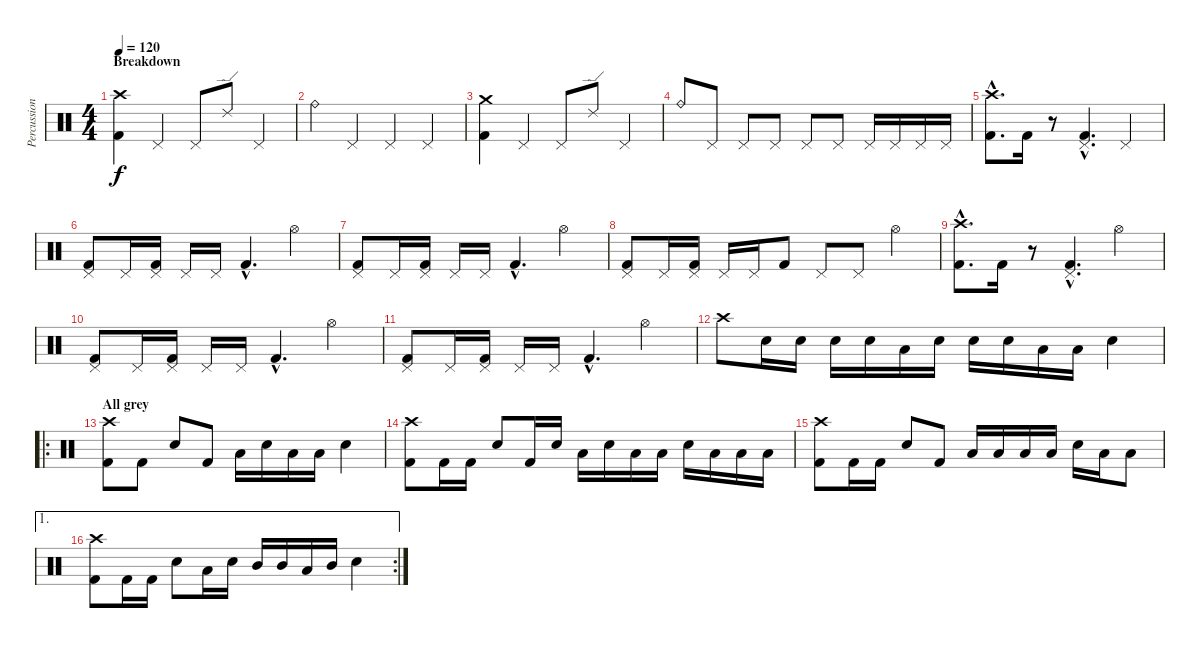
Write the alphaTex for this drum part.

\track ("Percussion" "Percussion") {instrument percussion}
\staff {score}
\articulation defaults
\ts (4 4)
\section ("" "Breakdown")
\tempo 120
\clef neutral
\ks c
("Crash high (hit)" "Kick (hit) 2").4{dy f} "Pedal Hi-Hat (hit)".4 "Pedal Hi-Hat (hit)".8 "Ride (edge) 2".8 "Pedal Hi-Hat (hit)".4 |
"Ride (bell)".4 "Pedal Hi-Hat (hit)".4 "Pedal Hi-Hat (hit)".4 "Pedal Hi-Hat (hit)".4 |
("Crash medium (hit)" "Kick (hit) 2").4 "Pedal Hi-Hat (hit)".4 "Pedal Hi-Hat (hit)".8 "Ride (edge) 2".8 "Pedal Hi-Hat (hit)".4 |
"Ride (bell)".8 "Pedal Hi-Hat (hit)".8 "Pedal Hi-Hat (hit)".8 "Pedal Hi-Hat (hit)".8 "Pedal Hi-Hat (hit)".8 "Pedal Hi-Hat (hit)".8 "Pedal Hi-Hat (hit)".16 "Pedal Hi-Hat (hit)".16 "Pedal Hi-Hat (hit)".16 "Pedal Hi-Hat (hit)".16 |
("Crash high (hit)"{hac} "Kick (hit) 2"{hac}).8{d} "Kick (hit) 2".16 r.8 ("Pedal Hi-Hat (hit)"{hac} "Kick (hit) 2"{hac}).4{d} "Pedal Hi-Hat (hit)".4 |
("Pedal Hi-Hat (hit)" "Kick (hit) 2").8 "Pedal Hi-Hat (hit)".16 ("Pedal Hi-Hat (hit)" "Kick (hit) 2").16 "Pedal Hi-Hat (hit)".16 "Pedal Hi-Hat (hit)".16 "Kick (hit) 2"{hac}.4{d} "Hi-Hat (open)".4 |
("Pedal Hi-Hat (hit)" "Kick (hit) 2").8 "Pedal Hi-Hat (hit)".16 ("Pedal Hi-Hat (hit)" "Kick (hit) 2").16 "Pedal Hi-Hat (hit)".16 "Pedal Hi-Hat (hit)".16 "Kick (hit) 2"{hac}.4{d} "Hi-Hat (open)".4 |
("Pedal Hi-Hat (hit)" "Kick (hit) 2").8 "Pedal Hi-Hat (hit)".16 ("Pedal Hi-Hat (hit)" "Kick (hit) 2").16 "Pedal Hi-Hat (hit)".16 "Pedal Hi-Hat (hit)".16 "Kick (hit) 2".8 "Pedal Hi-Hat (hit)".8 "Pedal Hi-Hat (hit)".8 "Hi-Hat (open)".4 |
("Crash high (hit)"{hac} "Kick (hit) 2"{hac}).8{d} "Kick (hit) 2".16 r.8 ("Pedal Hi-Hat (hit)"{hac} "Kick (hit) 2"{hac}).4{d} "Hi-Hat (open)".4 |
("Pedal Hi-Hat (hit)" "Kick (hit) 2").8 "Pedal Hi-Hat (hit)".16 ("Pedal Hi-Hat (hit)" "Kick (hit) 2").16 "Pedal Hi-Hat (hit)".16 "Pedal Hi-Hat (hit)".16 "Kick (hit) 2"{hac}.4{d} "Hi-Hat (open)".4 |
("Pedal Hi-Hat (hit)" "Kick (hit) 2").8 "Pedal Hi-Hat (hit)".16 ("Pedal Hi-Hat (hit)" "Kick (hit) 2").16 "Pedal Hi-Hat (hit)".16 "Pedal Hi-Hat (hit)".16 "Kick (hit) 2"{hac}.4{d} "Hi-Hat (open)".4 |
"Crash high (hit)".8 "Snare (hit) 2".16 "Snare (hit) 2".16 "Snare (hit) 2".16 "Snare (hit) 2".16 "Low Tom (hit)".16 "Snare (hit) 2".16 "Snare (hit) 2".16 "Snare (hit) 2".16 "Low Tom (hit)".16 "Low Tom (hit)".16 "Snare (hit) 2".4 |
\ro
\section ("" "All grey")
("Crash high (hit)" "Kick (hit) 2").8 "Kick (hit) 2".8 "Snare (hit) 2".8 "Kick (hit) 2".8 "Low Tom (hit)".16 "Snare (hit) 2".16 "Low Tom (hit)".16 "Low Tom (hit)".16 "Snare (hit) 2".4 |
("Crash high (hit)" "Kick (hit) 2").8 "Kick (hit) 2".16 "Kick (hit) 2".16 "Snare (hit) 2".8 "Kick (hit) 2".16 "Snare (hit) 2".16 "Low Tom (hit)".16 "Snare (hit) 2".16 "Low Tom (hit)".16 "Low Tom (hit)".16 "Snare (hit) 2".16 "Low Tom (hit)".16 "Low Tom (hit)".16 "Low Tom (hit)".16 |
("Crash high (hit)" "Kick (hit) 2").8 "Kick (hit) 2".16 "Kick (hit) 2".16 "Snare (hit) 2".8 "Kick (hit) 2".8 "Low Tom (hit)".16 "Low Tom (hit)".16 "Low Tom (hit)".16 "Low Tom (hit)".16 "Snare (hit) 2".16 "Low Tom (hit)".16 "Low Tom (hit)".8 |
\ae 1
\rc 2
("Crash high (hit)" "Kick (hit) 2").8 "Kick (hit) 2".16 "Kick (hit) 2".16 "Snare (hit) 2".8 "Low Tom (hit)".16 "Snare (hit) 2".16 "Mid Tom (hit)".16 "Mid Tom (hit)".16 "Low Tom (hit)".16 "Mid Tom (hit)".16 "Snare (hit) 2".4
